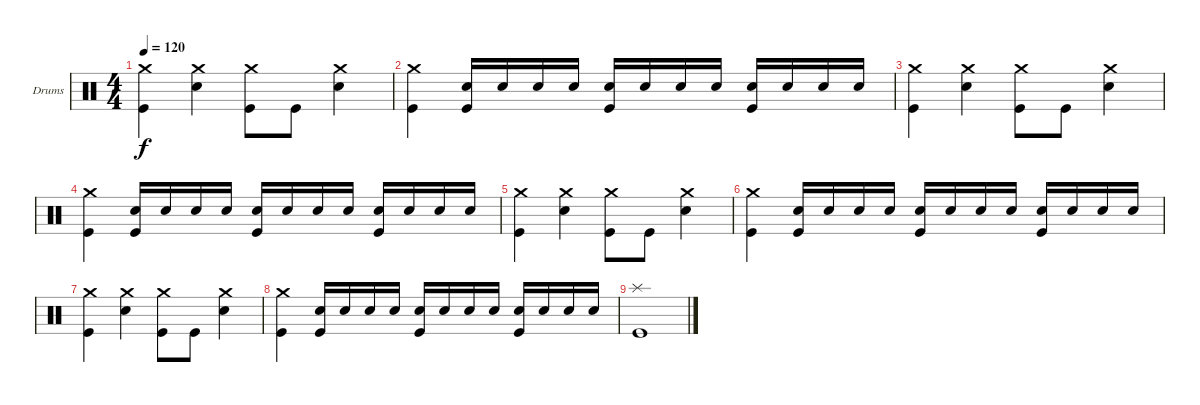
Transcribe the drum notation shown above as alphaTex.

\defaultSystemsLayout 4
\bracketExtendMode groupsimilarinstruments
\firstSystemTrackNameOrientation horizontal
\otherSystemsTrackNameOrientation horizontal
\track ("Drumkit" "Drums") {instrument percussion}
\staff {score}
\articulation defaults
\ts (4 4)
\tempo 120
\clef neutral
\ks c
("Crash medium (hit)" "Kick (hit)").4{dy f} ("Crash medium (hit)" "Snare (hit) 2").4 ("Crash medium (hit)" "Kick (hit)").8 "Kick (hit)".8 ("Crash medium (hit)" "Snare (hit) 2").4 |
("Crash medium (hit)" "Kick (hit)").4 ("Kick (hit)" "Snare (hit) 2").16 "Snare (hit) 2".16 "Snare (hit) 2".16 "Snare (hit) 2".16 ("Kick (hit)" "Snare (hit) 2").16 "Snare (hit) 2".16 "Snare (hit) 2".16 "Snare (hit) 2".16 ("Kick (hit)" "Snare (hit) 2").16 "Snare (hit) 2".16 "Snare (hit) 2".16 "Snare (hit) 2".16 |
("Crash medium (hit)" "Kick (hit)").4 ("Crash medium (hit)" "Snare (hit) 2").4 ("Crash medium (hit)" "Kick (hit)").8 "Kick (hit)".8 ("Crash medium (hit)" "Snare (hit) 2").4 |
("Crash medium (hit)" "Kick (hit)").4 ("Kick (hit)" "Snare (hit) 2").16 "Snare (hit) 2".16 "Snare (hit) 2".16 "Snare (hit) 2".16 ("Kick (hit)" "Snare (hit) 2").16 "Snare (hit) 2".16 "Snare (hit) 2".16 "Snare (hit) 2".16 ("Kick (hit)" "Snare (hit) 2").16 "Snare (hit) 2".16 "Snare (hit) 2".16 "Snare (hit) 2".16 |
("Crash medium (hit)" "Kick (hit)").4 ("Crash medium (hit)" "Snare (hit) 2").4 ("Crash medium (hit)" "Kick (hit)").8 "Kick (hit)".8 ("Crash medium (hit)" "Snare (hit) 2").4 |
("Crash medium (hit)" "Kick (hit)").4 ("Kick (hit)" "Snare (hit) 2").16 "Snare (hit) 2".16 "Snare (hit) 2".16 "Snare (hit) 2".16 ("Kick (hit)" "Snare (hit) 2").16 "Snare (hit) 2".16 "Snare (hit) 2".16 "Snare (hit) 2".16 ("Kick (hit)" "Snare (hit) 2").16 "Snare (hit) 2".16 "Snare (hit) 2".16 "Snare (hit) 2".16 |
("Crash medium (hit)" "Kick (hit)").4 ("Crash medium (hit)" "Snare (hit) 2").4 ("Crash medium (hit)" "Kick (hit)").8 "Kick (hit)".8 ("Crash medium (hit)" "Snare (hit) 2").4 |
("Crash medium (hit)" "Kick (hit)").4 ("Kick (hit)" "Snare (hit) 2").16 "Snare (hit) 2".16 "Snare (hit) 2".16 "Snare (hit) 2".16 ("Kick (hit)" "Snare (hit) 2").16 "Snare (hit) 2".16 "Snare (hit) 2".16 "Snare (hit) 2".16 ("Kick (hit)" "Snare (hit) 2").16 "Snare (hit) 2".16 "Snare (hit) 2".16 "Snare (hit) 2".16 |
("Kick (hit)" "Splash (hit)").1
